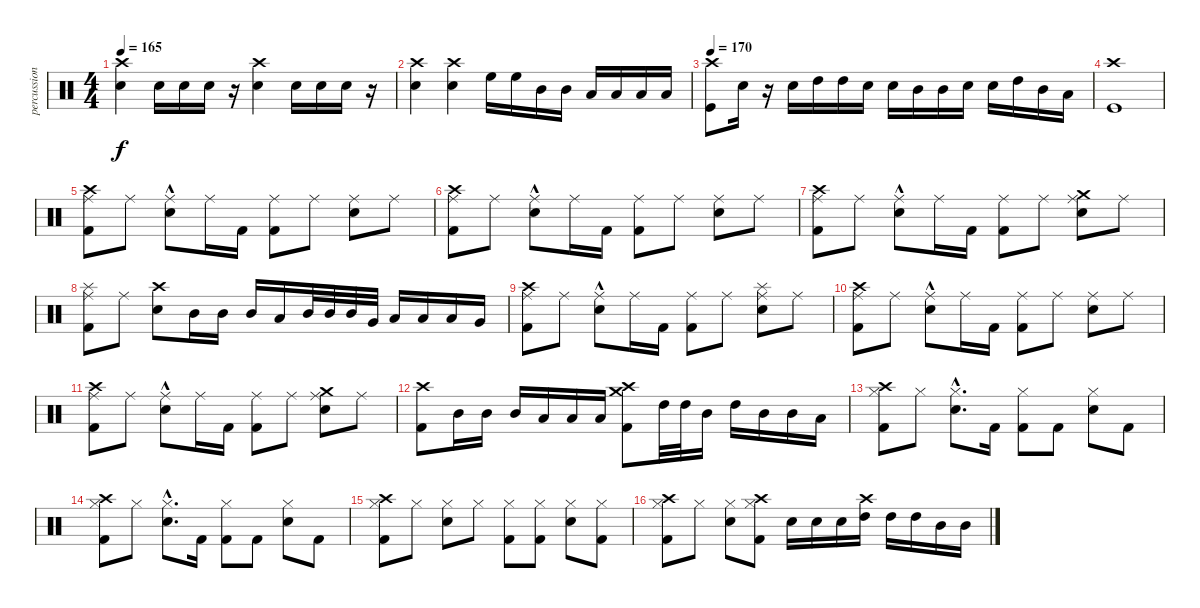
\track ("percussion" "percussion") {instrument percussion}
\staff {score}
\articulation defaults
\ts (4 4)
\tempo 165
\clef neutral
\ks c
("Crash high (hit)" "Snare (hit) 2").4{dy f} "Snare (hit) 2".16 "Snare (hit) 2".16 "Snare (hit) 2".16 r.16 ("Crash high (hit)" "Snare (hit) 2").4 "Snare (hit) 2".16 "Snare (hit) 2".16 "Snare (hit) 2".16 r.16 |
("Crash high (hit)" "Snare (hit) 2").4 ("Crash high (hit)" "Snare (hit) 2").4 "High Floor Tom (hit)".16 "High Floor Tom (hit)".16 "Mid Tom (hit)".16 "Mid Tom (hit)".16 "Low Tom (hit)".16 "Low Tom (hit)".16 "Low Floor Tom (hit)".16 "Low Floor Tom (hit)".16 |
\tempo 170
("Crash high (hit)" "Kick (hit)").8 "Snare (hit) 2".16 r.16 "Snare (hit) 2".16 "High Tom (hit)".16 "High Tom (hit)".16 "Snare (hit) 2".16 "Snare (hit) 2".16 "Mid Tom (hit)".16 "Mid Tom (hit)".16 "Snare (hit) 2".16 "Snare (hit) 2".16 "High Tom (hit)".16 "Mid Tom (hit)".16 "Low Tom (hit)".16 |
("Crash high (hit)" "Kick (hit)").1 |
("Kick (hit) 2" "Crash high (hit)" "Ride (middle)").8 "Ride (middle)".8 ("Electric Snare (hit)"{hac} "Ride (middle)").8 "Ride (middle)".16 "Kick (hit) 2".16 ("Kick (hit) 2" "Ride (middle)").8 "Ride (middle)".8 ("Electric Snare (hit)" "Ride (middle)").8 "Ride (middle)".8 |
("Ride (middle)" "Crash high (hit)" "Kick (hit) 2").8 "Ride (middle)".8 ("Electric Snare (hit)"{hac} "Ride (middle)").8 "Ride (middle)".16 "Kick (hit) 2".16 ("Kick (hit) 2" "Ride (middle)").8 "Ride (middle)".8 ("Electric Snare (hit)" "Ride (middle)").8 "Ride (middle)".8 |
("Ride (middle)" "Crash high (hit)" "Kick (hit) 2").8 "Ride (middle)".8 ("Electric Snare (hit)"{hac} "Ride (middle)").8 "Ride (middle)".16 "Kick (hit) 2".16 ("Kick (hit) 2" "Ride (middle)").8 "Ride (middle)".8 ("Electric Snare (hit)" "Ride (middle)" "Crash medium (hit)").8 "Ride (middle)".8 |
("Ride (middle)" "Kick (hit) 2" "Splash (hit)").8 "Ride (middle)".8 ("Electric Snare (hit)" "Crash high (hit)").8 "Mid Tom (hit)".16 "Mid Tom (hit)".16 "Mid Tom (hit)".16 "Low Tom (hit)".16 "Mid Tom (hit)".32 "Mid Tom (hit)".32 "Mid Tom (hit)".32 "Very Low Tom (hit)".32 "Low Tom (hit)".16 "Low Tom (hit)".16 "Low Tom (hit)".16 "Very Low Tom (hit)".16 |
("Kick (hit) 2" "Crash high (hit)" "Ride (middle)").8 "Ride (middle)".8 ("Electric Snare (hit)"{hac} "Ride (middle)").8 "Ride (middle)".16 "Kick (hit) 2".16 ("Kick (hit) 2" "Ride (middle)").8 "Ride (middle)".8 ("Electric Snare (hit)" "Ride (middle)" "Splash (hit)").8 "Ride (middle)".8 |
("Kick (hit) 2" "Crash high (hit)" "Ride (middle)").8 "Ride (middle)".8 ("Electric Snare (hit)"{hac} "Ride (middle)").8 "Ride (middle)".16 "Kick (hit) 2".16 ("Kick (hit) 2" "Ride (middle)").8 "Ride (middle)".8 ("Electric Snare (hit)" "Ride (middle)").8 "Ride (middle)".8 |
("Ride (middle)" "Crash high (hit)" "Kick (hit) 2").8 "Ride (middle)".8 ("Electric Snare (hit)"{hac} "Ride (middle)").8 "Ride (middle)".16 "Kick (hit) 2".16 ("Kick (hit) 2" "Ride (middle)").8 "Ride (middle)".8 ("Electric Snare (hit)" "Ride (middle)" "Crash medium (hit)").8 "Ride (middle)".8 |
("Kick (hit) 2" "Crash high (hit)").8 "Mid Tom (hit)".16 "Mid Tom (hit)".16 "Mid Tom (hit)".16 "Low Tom (hit)".16 "Low Tom (hit)".16 "Low Tom (hit)".16 ("Crash high (hit)" "Crash medium (hit)" "Kick (hit) 2").8 "High Tom (hit)".32 "High Tom (hit)".32 "Mid Tom (hit)".16 "High Tom (hit)".16 "Mid Tom (hit)".16 "Mid Tom (hit)".16 "Low Tom (hit)".16 |
("Crash high (hit)" "Hi-Hat (closed)" "Kick (hit) 2").8 "Hi-Hat (closed)".8 ("Hi-Hat (closed)"{hac} "Snare (hit) 2"{hac}).8{d} "Kick (hit) 2".16 ("Hi-Hat (closed)" "Kick (hit) 2").8 "Kick (hit) 2".8 ("Hi-Hat (closed)" "Snare (hit) 2").8 "Kick (hit) 2".8 |
("Crash high (hit)" "Hi-Hat (closed)" "Kick (hit) 2").8 "Hi-Hat (closed)".8 ("Hi-Hat (closed)"{hac} "Snare (hit) 2"{hac}).8{d} "Kick (hit) 2".16 ("Hi-Hat (closed)" "Kick (hit) 2").8 "Kick (hit) 2".8 ("Hi-Hat (closed)" "Snare (hit) 2").8 "Kick (hit) 2".8 |
("Crash high (hit)" "Hi-Hat (closed)" "Kick (hit) 2").8 "Hi-Hat (closed)".8 ("Hi-Hat (closed)" "Snare (hit) 2").8 "Hi-Hat (closed)".8 ("Hi-Hat (closed)" "Kick (hit) 2").8 ("Hi-Hat (closed)" "Kick (hit) 2").8 ("Hi-Hat (closed)" "Snare (hit) 2").8 ("Hi-Hat (closed)" "Kick (hit) 2").8 |
("Crash high (hit)" "Hi-Hat (closed)" "Kick (hit) 2").8 "Hi-Hat (closed)".8 ("Hi-Hat (closed)" "Snare (hit) 2").8 ("Crash high (hit)" "Hi-Hat (closed)" "Kick (hit) 2").8 "Snare (hit) 2".16 "Snare (hit) 2".16 "Snare (hit) 2".16 ("Crash high (hit)" "High Tom (hit)").16 "High Tom (hit)".16 "High Tom (hit)".16 "Mid Tom (hit)".16 "Mid Tom (hit)".16
